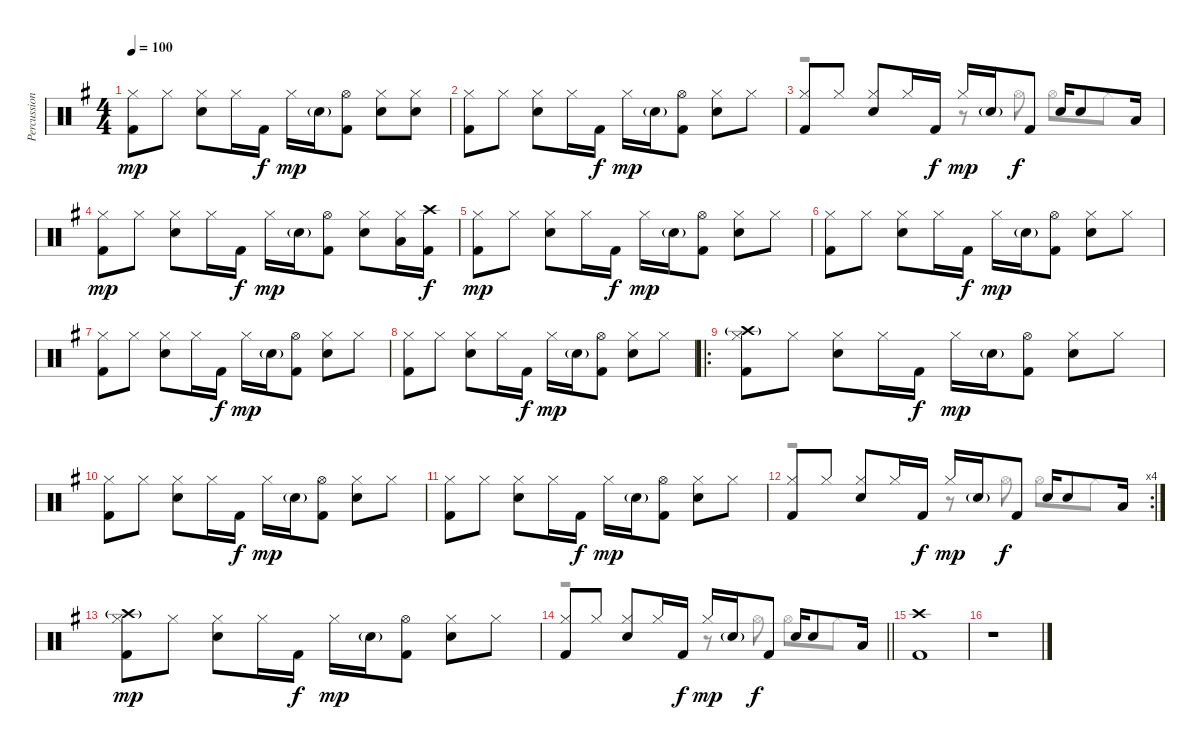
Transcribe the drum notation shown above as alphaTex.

\track ("Percussion" "Percussion") {instrument percussion}
\staff {score}
\articulation defaults
\voice
\ts (4 4)
\tempo 100
\clef neutral
\ks g
("Hi-Hat (closed)" "Kick (hit) 2").8{dy mp} "Hi-Hat (closed)".8 ("Hi-Hat (closed)" "Electric Snare (hit)").8 "Hi-Hat (closed)".16 "Kick (hit) 2".16{dy f} "Hi-Hat (closed)".16{dy mp} "Electric Snare (hit)"{g}.16 ("Hi-Hat (open)" "Kick (hit) 2").8 ("Hi-Hat (closed)" "Electric Snare (hit)").8 ("Hi-Hat (closed)" "Electric Snare (hit)").8 |
("Hi-Hat (closed)" "Kick (hit) 2").8 "Hi-Hat (closed)".8 ("Hi-Hat (closed)" "Electric Snare (hit)").8 "Hi-Hat (closed)".16 "Kick (hit) 2".16{dy f} "Hi-Hat (closed)".16{dy mp} "Electric Snare (hit)"{g}.16 ("Hi-Hat (open)" "Kick (hit) 2").8 ("Hi-Hat (closed)" "Electric Snare (hit)").8 "Hi-Hat (closed)".8 |
("Hi-Hat (closed)" "Kick (hit) 2").8 "Hi-Hat (closed)".8 ("Hi-Hat (closed)" "Electric Snare (hit)").8 "Hi-Hat (closed)".16 "Kick (hit) 2".16{dy f} "Hi-Hat (closed)".16{dy mp} "Electric Snare (hit)"{g}.16 "Kick (hit) 2".8{dy f} "Electric Snare (hit)".16 "Electric Snare (hit)".8 "Low Floor Tom (hit)".16 |
("Hi-Hat (closed)" "Kick (hit) 2").8{dy mp} "Hi-Hat (closed)".8 ("Hi-Hat (closed)" "Electric Snare (hit)").8 "Hi-Hat (closed)".16 "Kick (hit) 2".16{dy f} "Hi-Hat (closed)".16{dy mp} "Electric Snare (hit)"{g}.16 ("Hi-Hat (open)" "Kick (hit) 2").8 ("Hi-Hat (closed)" "Electric Snare (hit)").8 ("Hi-Hat (closed)" "Low Floor Tom (hit)").16 ("Crash high (hit)" "Kick (hit) 2").16{dy f} |
("Hi-Hat (closed)" "Kick (hit) 2").8{dy mp} "Hi-Hat (closed)".8 ("Hi-Hat (closed)" "Electric Snare (hit)").8 "Hi-Hat (closed)".16 "Kick (hit) 2".16{dy f} "Hi-Hat (closed)".16{dy mp} "Electric Snare (hit)"{g}.16 ("Hi-Hat (open)" "Kick (hit) 2").8 ("Hi-Hat (closed)" "Electric Snare (hit)").8 "Hi-Hat (closed)".8 |
("Hi-Hat (closed)" "Kick (hit) 2").8 "Hi-Hat (closed)".8 ("Hi-Hat (closed)" "Electric Snare (hit)").8 "Hi-Hat (closed)".16 "Kick (hit) 2".16{dy f} "Hi-Hat (closed)".16{dy mp} "Electric Snare (hit)"{g}.16 ("Hi-Hat (open)" "Kick (hit) 2").8 ("Hi-Hat (closed)" "Electric Snare (hit)").8 "Hi-Hat (closed)".8 |
("Hi-Hat (closed)" "Kick (hit) 2").8 "Hi-Hat (closed)".8 ("Hi-Hat (closed)" "Electric Snare (hit)").8 "Hi-Hat (closed)".16 "Kick (hit) 2".16{dy f} "Hi-Hat (closed)".16{dy mp} "Electric Snare (hit)"{g}.16 ("Hi-Hat (open)" "Kick (hit) 2").8 ("Hi-Hat (closed)" "Electric Snare (hit)").8 "Hi-Hat (closed)".8 |
("Hi-Hat (closed)" "Kick (hit) 2").8 "Hi-Hat (closed)".8 ("Hi-Hat (closed)" "Electric Snare (hit)").8 "Hi-Hat (closed)".16 "Kick (hit) 2".16{dy f} "Hi-Hat (closed)".16{dy mp} "Electric Snare (hit)"{g}.16 ("Hi-Hat (open)" "Kick (hit) 2").8 ("Hi-Hat (closed)" "Electric Snare (hit)").8 "Hi-Hat (closed)".8 |
\ro
("Hi-Hat (closed)" "Kick (hit) 2" "Crash high (hit)"{g}).8 "Hi-Hat (closed)".8 ("Hi-Hat (closed)" "Electric Snare (hit)").8 "Hi-Hat (closed)".16 "Kick (hit) 2".16{dy f} "Hi-Hat (closed)".16{dy mp} "Electric Snare (hit)"{g}.16 ("Hi-Hat (open)" "Kick (hit) 2").8 ("Hi-Hat (closed)" "Electric Snare (hit)").8 "Hi-Hat (closed)".8 |
("Hi-Hat (closed)" "Kick (hit) 2").8 "Hi-Hat (closed)".8 ("Hi-Hat (closed)" "Electric Snare (hit)").8 "Hi-Hat (closed)".16 "Kick (hit) 2".16{dy f} "Hi-Hat (closed)".16{dy mp} "Electric Snare (hit)"{g}.16 ("Hi-Hat (open)" "Kick (hit) 2").8 ("Hi-Hat (closed)" "Electric Snare (hit)").8 "Hi-Hat (closed)".8 |
("Hi-Hat (closed)" "Kick (hit) 2").8 "Hi-Hat (closed)".8 ("Hi-Hat (closed)" "Electric Snare (hit)").8 "Hi-Hat (closed)".16 "Kick (hit) 2".16{dy f} "Hi-Hat (closed)".16{dy mp} "Electric Snare (hit)"{g}.16 ("Hi-Hat (open)" "Kick (hit) 2").8 ("Hi-Hat (closed)" "Electric Snare (hit)").8 "Hi-Hat (closed)".8 |
\rc 4
("Hi-Hat (closed)" "Kick (hit) 2").8 "Hi-Hat (closed)".8 ("Hi-Hat (closed)" "Electric Snare (hit)").8 "Hi-Hat (closed)".16 "Kick (hit) 2".16{dy f} "Hi-Hat (closed)".16{dy mp} "Electric Snare (hit)"{g}.16 "Kick (hit) 2".8{dy f} "Electric Snare (hit)".16 "Electric Snare (hit)".8 "Low Floor Tom (hit)".16 |
("Crash high (hit)"{g} "Hi-Hat (closed)" "Kick (hit) 2").8{dy mp} "Hi-Hat (closed)".8 ("Hi-Hat (closed)" "Electric Snare (hit)").8 "Hi-Hat (closed)".16 "Kick (hit) 2".16{dy f} "Hi-Hat (closed)".16{dy mp} "Electric Snare (hit)"{g}.16 ("Hi-Hat (open)" "Kick (hit) 2").8 ("Hi-Hat (closed)" "Electric Snare (hit)").8 "Hi-Hat (closed)".8 |
\barLineRight lightlight
("Hi-Hat (closed)" "Kick (hit) 2").8 "Hi-Hat (closed)".8 ("Hi-Hat (closed)" "Electric Snare (hit)").8 "Hi-Hat (closed)".16 "Kick (hit) 2".16{dy f} "Hi-Hat (closed)".16{dy mp} "Electric Snare (hit)"{g}.16 "Kick (hit) 2".8{dy f} "Electric Snare (hit)".16 "Electric Snare (hit)".8 "Low Floor Tom (hit)".16 |
("Crash high (hit)" "Kick (hit) 2").1 |
r.1
\voice
\clef neutral
\ottava regular
\simile none
\ks g
|
|
r.2 r.8 "Hi-Hat (open)".8 "Hi-Hat (open)".8 "Hi-Hat (closed)".8 |
|
|
|
|
|
|
|
|
r.2 r.8 "Hi-Hat (open)".8 "Hi-Hat (open)".8 "Hi-Hat (closed)".8 |
|
\barLineRight lightlight
r.2 r.8 "Hi-Hat (open)".8 "Hi-Hat (open)".8 "Hi-Hat (closed)".8 |
|
